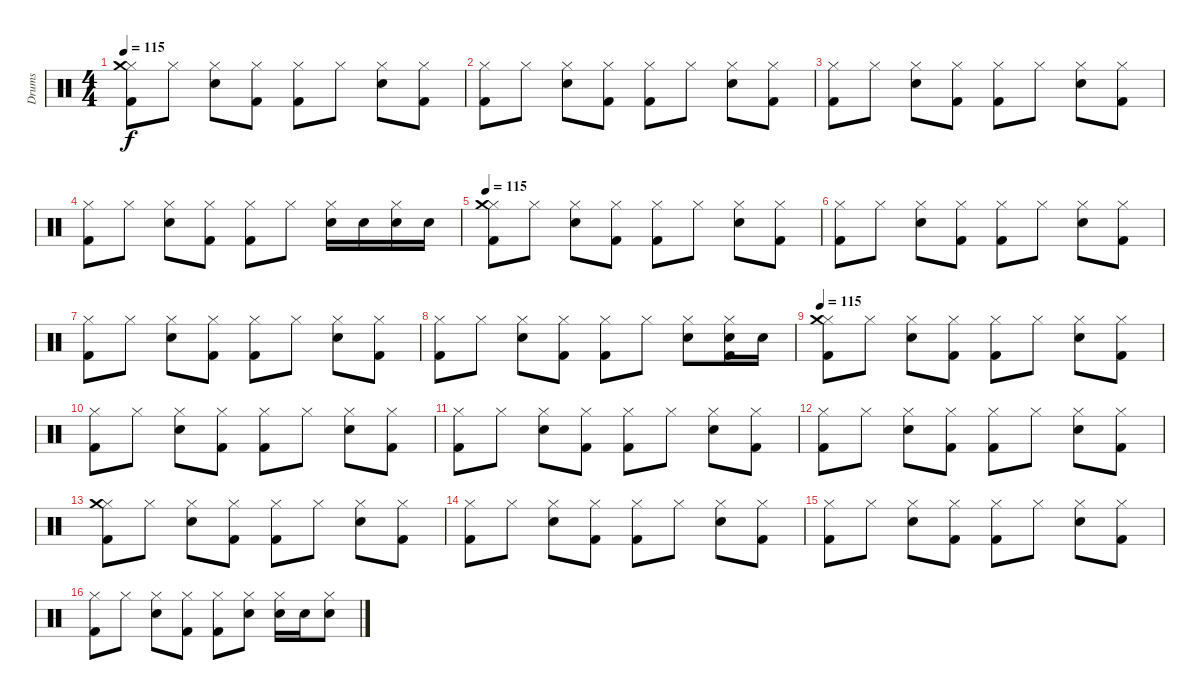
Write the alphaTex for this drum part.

\track ("Drums" "Drums") {instrument percussion}
\staff {score}
\articulation defaults
\ts (4 4)
\tempo 115
\clef neutral
\ks c
("Hi-Hat (closed)" "Crash medium (hit)" "Kick (hit) 2").8{dy f} "Hi-Hat (closed)".8 ("Hi-Hat (closed)" "Snare (hit) 2").8 ("Hi-Hat (closed)" "Kick (hit) 2").8 ("Hi-Hat (closed)" "Kick (hit) 2").8 "Hi-Hat (closed)".8 ("Hi-Hat (closed)" "Snare (hit) 2").8 ("Hi-Hat (closed)" "Kick (hit) 2").8 |
("Hi-Hat (closed)" "Kick (hit) 2").8 "Hi-Hat (closed)".8 ("Hi-Hat (closed)" "Snare (hit) 2").8 ("Hi-Hat (closed)" "Kick (hit) 2").8 ("Hi-Hat (closed)" "Kick (hit) 2").8 "Hi-Hat (closed)".8 ("Hi-Hat (closed)" "Snare (hit) 2").8 ("Hi-Hat (closed)" "Kick (hit) 2").8 |
("Hi-Hat (closed)" "Kick (hit) 2").8 "Hi-Hat (closed)".8 ("Hi-Hat (closed)" "Snare (hit) 2").8 ("Hi-Hat (closed)" "Kick (hit) 2").8 ("Hi-Hat (closed)" "Kick (hit) 2").8 "Hi-Hat (closed)".8 ("Hi-Hat (closed)" "Snare (hit) 2").8 ("Hi-Hat (closed)" "Kick (hit) 2").8 |
("Hi-Hat (closed)" "Kick (hit) 2").8 "Hi-Hat (closed)".8 ("Hi-Hat (closed)" "Snare (hit) 2").8 ("Hi-Hat (closed)" "Kick (hit) 2").8 ("Hi-Hat (closed)" "Kick (hit) 2").8 "Hi-Hat (closed)".8 ("Snare (hit) 2" "Hi-Hat (closed)").16 "Snare (hit) 2".16 ("Snare (hit) 2" "Hi-Hat (closed)").16 "Snare (hit) 2".16 |
\tempo 115
("Hi-Hat (closed)" "Crash medium (hit)" "Kick (hit) 2").8 "Hi-Hat (closed)".8 ("Hi-Hat (closed)" "Snare (hit) 2").8 ("Hi-Hat (closed)" "Kick (hit) 2").8 ("Hi-Hat (closed)" "Kick (hit) 2").8 "Hi-Hat (closed)".8 ("Hi-Hat (closed)" "Snare (hit) 2").8 ("Hi-Hat (closed)" "Kick (hit) 2").8 |
("Hi-Hat (closed)" "Kick (hit) 2").8 "Hi-Hat (closed)".8 ("Hi-Hat (closed)" "Snare (hit) 2").8 ("Hi-Hat (closed)" "Kick (hit) 2").8 ("Hi-Hat (closed)" "Kick (hit) 2").8 "Hi-Hat (closed)".8 ("Hi-Hat (closed)" "Snare (hit) 2").8 ("Hi-Hat (closed)" "Kick (hit) 2").8 |
("Hi-Hat (closed)" "Kick (hit) 2").8 "Hi-Hat (closed)".8 ("Hi-Hat (closed)" "Snare (hit) 2").8 ("Hi-Hat (closed)" "Kick (hit) 2").8 ("Hi-Hat (closed)" "Kick (hit) 2").8 "Hi-Hat (closed)".8 ("Hi-Hat (closed)" "Snare (hit) 2").8 ("Hi-Hat (closed)" "Kick (hit) 2").8 |
("Hi-Hat (closed)" "Kick (hit) 2").8 "Hi-Hat (closed)".8 ("Hi-Hat (closed)" "Snare (hit) 2").8 ("Hi-Hat (closed)" "Kick (hit) 2").8 ("Hi-Hat (closed)" "Kick (hit) 2").8 "Hi-Hat (closed)".8 ("Hi-Hat (closed)" "Snare (hit) 2").8 ("Snare (hit) 2" "Hi-Hat (closed)" "Kick (hit) 2").16 "Snare (hit) 2".16 |
\tempo 115
("Hi-Hat (closed)" "Crash medium (hit)" "Kick (hit) 2").8 "Hi-Hat (closed)".8 ("Hi-Hat (closed)" "Snare (hit) 2").8 ("Hi-Hat (closed)" "Kick (hit) 2").8 ("Hi-Hat (closed)" "Kick (hit) 2").8 "Hi-Hat (closed)".8 ("Hi-Hat (closed)" "Snare (hit) 2").8 ("Hi-Hat (closed)" "Kick (hit) 2").8 |
("Hi-Hat (closed)" "Kick (hit) 2").8 "Hi-Hat (closed)".8 ("Hi-Hat (closed)" "Snare (hit) 2").8 ("Hi-Hat (closed)" "Kick (hit) 2").8 ("Hi-Hat (closed)" "Kick (hit) 2").8 "Hi-Hat (closed)".8 ("Hi-Hat (closed)" "Snare (hit) 2").8 ("Hi-Hat (closed)" "Kick (hit) 2").8 |
("Hi-Hat (closed)" "Kick (hit) 2").8 "Hi-Hat (closed)".8 ("Hi-Hat (closed)" "Snare (hit) 2").8 ("Hi-Hat (closed)" "Kick (hit) 2").8 ("Hi-Hat (closed)" "Kick (hit) 2").8 "Hi-Hat (closed)".8 ("Hi-Hat (closed)" "Snare (hit) 2").8 ("Hi-Hat (closed)" "Kick (hit) 2").8 |
("Hi-Hat (closed)" "Kick (hit) 2").8 "Hi-Hat (closed)".8 ("Hi-Hat (closed)" "Snare (hit) 2").8 ("Hi-Hat (closed)" "Kick (hit) 2").8 ("Hi-Hat (closed)" "Kick (hit) 2").8 "Hi-Hat (closed)".8 ("Hi-Hat (closed)" "Snare (hit) 2").8 ("Hi-Hat (closed)" "Kick (hit) 2").8 |
("Hi-Hat (closed)" "Crash medium (hit)" "Kick (hit) 2").8 "Hi-Hat (closed)".8 ("Hi-Hat (closed)" "Snare (hit) 2").8 ("Hi-Hat (closed)" "Kick (hit) 2").8 ("Hi-Hat (closed)" "Kick (hit) 2").8 "Hi-Hat (closed)".8 ("Hi-Hat (closed)" "Snare (hit) 2").8 ("Hi-Hat (closed)" "Kick (hit) 2").8 |
("Hi-Hat (closed)" "Kick (hit) 2").8 "Hi-Hat (closed)".8 ("Hi-Hat (closed)" "Snare (hit) 2").8 ("Hi-Hat (closed)" "Kick (hit) 2").8 ("Hi-Hat (closed)" "Kick (hit) 2").8 "Hi-Hat (closed)".8 ("Hi-Hat (closed)" "Snare (hit) 2").8 ("Hi-Hat (closed)" "Kick (hit) 2").8 |
("Hi-Hat (closed)" "Kick (hit) 2").8 "Hi-Hat (closed)".8 ("Hi-Hat (closed)" "Snare (hit) 2").8 ("Hi-Hat (closed)" "Kick (hit) 2").8 ("Hi-Hat (closed)" "Kick (hit) 2").8 "Hi-Hat (closed)".8 ("Hi-Hat (closed)" "Snare (hit) 2").8 ("Hi-Hat (closed)" "Kick (hit) 2").8 |
("Hi-Hat (closed)" "Kick (hit) 2").8 "Hi-Hat (closed)".8 ("Hi-Hat (closed)" "Snare (hit) 2").8 ("Hi-Hat (closed)" "Kick (hit) 2").8 ("Hi-Hat (closed)" "Kick (hit) 2").8 ("Snare (hit) 2" "Hi-Hat (closed)").8 ("Snare (hit) 2" "Hi-Hat (closed)").16 "Snare (hit) 2".16 ("Snare (hit) 2" "Hi-Hat (closed)").8
